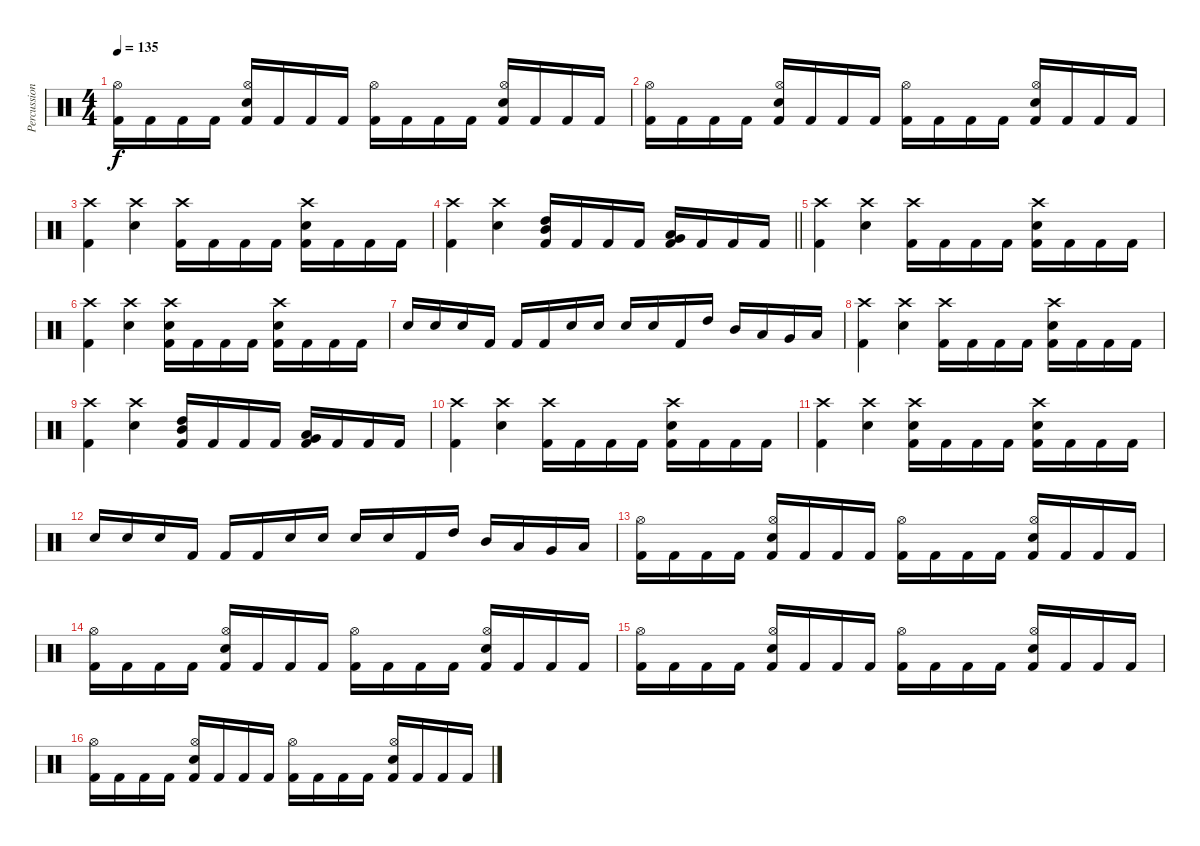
\track ("Percussion" "Percussion") {instrument percussion}
\staff {score}
\articulation defaults
\ts (4 4)
\tempo 135
\clef neutral
\ks c
("Kick (hit) 2" "Hi-Hat (open)").16{dy f} "Kick (hit) 2".16 "Kick (hit) 2".16 "Kick (hit) 2".16 ("Kick (hit) 2" "Hi-Hat (open)" "Electric Snare (hit)").16 "Kick (hit) 2".16 "Kick (hit) 2".16 "Kick (hit) 2".16 ("Kick (hit) 2" "Hi-Hat (open)").16 "Kick (hit) 2".16 "Kick (hit) 2".16 "Kick (hit) 2".16 ("Kick (hit) 2" "Hi-Hat (open)" "Electric Snare (hit)").16 "Kick (hit) 2".16 "Kick (hit) 2".16 "Kick (hit) 2".16 |
("Kick (hit) 2" "Hi-Hat (open)").16 "Kick (hit) 2".16 "Kick (hit) 2".16 "Kick (hit) 2".16 ("Kick (hit) 2" "Hi-Hat (open)" "Electric Snare (hit)").16 "Kick (hit) 2".16 "Kick (hit) 2".16 "Kick (hit) 2".16 ("Kick (hit) 2" "Hi-Hat (open)").16 "Kick (hit) 2".16 "Kick (hit) 2".16 "Kick (hit) 2".16 ("Kick (hit) 2" "Hi-Hat (open)" "Electric Snare (hit)").16 "Kick (hit) 2".16 "Kick (hit) 2".16 "Kick (hit) 2".16 |
("Crash high (hit)" "Kick (hit) 2").4 ("Crash high (hit)" "Electric Snare (hit)").4 ("Kick (hit) 2" "Crash high (hit)").16 "Kick (hit) 2".16 "Kick (hit) 2".16 "Kick (hit) 2".16 ("Kick (hit) 2" "Crash high (hit)" "Electric Snare (hit)").16 "Kick (hit) 2".16 "Kick (hit) 2".16 "Kick (hit) 2".16 |
\barLineRight lightlight
("Crash high (hit)" "Kick (hit) 2").4 ("Crash high (hit)" "Electric Snare (hit)").4 ("Kick (hit) 2" "High Tom (hit)" "Mid Tom (hit)").16 "Kick (hit) 2".16 "Kick (hit) 2".16 "Kick (hit) 2".16 ("Kick (hit) 2" "Very Low Tom (hit)" "Low Tom (hit)").16 "Kick (hit) 2".16 "Kick (hit) 2".16 "Kick (hit) 2".16 |
("Crash high (hit)" "Kick (hit) 2").4 ("Crash high (hit)" "Electric Snare (hit)").4 ("Kick (hit) 2" "Crash high (hit)").16 "Kick (hit) 2".16 "Kick (hit) 2".16 "Kick (hit) 2".16 ("Kick (hit) 2" "Crash high (hit)" "Electric Snare (hit)").16 "Kick (hit) 2".16 "Kick (hit) 2".16 "Kick (hit) 2".16 |
("Crash high (hit)" "Kick (hit) 2").4 ("Crash high (hit)" "Electric Snare (hit)").4 ("Kick (hit) 2" "Electric Snare (hit)" "Crash high (hit)").16 "Kick (hit) 2".16 "Kick (hit) 2".16 "Kick (hit) 2".16 ("Kick (hit) 2" "Electric Snare (hit)" "Crash high (hit)").16 "Kick (hit) 2".16 "Kick (hit) 2".16 "Kick (hit) 2".16 |
"Electric Snare (hit)".16 "Electric Snare (hit)".16 "Electric Snare (hit)".16 "Kick (hit) 2".16 "Kick (hit) 2".16 "Kick (hit) 2".16 "Electric Snare (hit)".16 "Electric Snare (hit)".16 "Electric Snare (hit)".16 "Electric Snare (hit)".16 "Kick (hit) 2".16 "High Tom (hit)".16 "Mid Tom (hit)".16 "Low Tom (hit)".16 "Very Low Tom (hit)".16 "Low Floor Tom (hit)".16 |
("Crash high (hit)" "Kick (hit) 2").4 ("Crash high (hit)" "Electric Snare (hit)").4 ("Kick (hit) 2" "Crash high (hit)").16 "Kick (hit) 2".16 "Kick (hit) 2".16 "Kick (hit) 2".16 ("Kick (hit) 2" "Crash high (hit)" "Electric Snare (hit)").16 "Kick (hit) 2".16 "Kick (hit) 2".16 "Kick (hit) 2".16 |
("Crash high (hit)" "Kick (hit) 2").4 ("Crash high (hit)" "Electric Snare (hit)").4 ("Kick (hit) 2" "High Tom (hit)" "Mid Tom (hit)").16 "Kick (hit) 2".16 "Kick (hit) 2".16 "Kick (hit) 2".16 ("Kick (hit) 2" "Very Low Tom (hit)" "Low Tom (hit)").16 "Kick (hit) 2".16 "Kick (hit) 2".16 "Kick (hit) 2".16 |
("Crash high (hit)" "Kick (hit) 2").4 ("Crash high (hit)" "Electric Snare (hit)").4 ("Kick (hit) 2" "Crash high (hit)").16 "Kick (hit) 2".16 "Kick (hit) 2".16 "Kick (hit) 2".16 ("Kick (hit) 2" "Crash high (hit)" "Electric Snare (hit)").16 "Kick (hit) 2".16 "Kick (hit) 2".16 "Kick (hit) 2".16 |
("Crash high (hit)" "Kick (hit) 2").4 ("Crash high (hit)" "Electric Snare (hit)").4 ("Kick (hit) 2" "Electric Snare (hit)" "Crash high (hit)").16 "Kick (hit) 2".16 "Kick (hit) 2".16 "Kick (hit) 2".16 ("Kick (hit) 2" "Electric Snare (hit)" "Crash high (hit)").16 "Kick (hit) 2".16 "Kick (hit) 2".16 "Kick (hit) 2".16 |
"Electric Snare (hit)".16 "Electric Snare (hit)".16 "Electric Snare (hit)".16 "Kick (hit) 2".16 "Kick (hit) 2".16 "Kick (hit) 2".16 "Electric Snare (hit)".16 "Electric Snare (hit)".16 "Electric Snare (hit)".16 "Electric Snare (hit)".16 "Kick (hit) 2".16 "High Tom (hit)".16 "Mid Tom (hit)".16 "Low Tom (hit)".16 "Very Low Tom (hit)".16 "Low Floor Tom (hit)".16 |
("Kick (hit) 2" "Hi-Hat (open)").16 "Kick (hit) 2".16 "Kick (hit) 2".16 "Kick (hit) 2".16 ("Kick (hit) 2" "Hi-Hat (open)" "Electric Snare (hit)").16 "Kick (hit) 2".16 "Kick (hit) 2".16 "Kick (hit) 2".16 ("Kick (hit) 2" "Hi-Hat (open)").16 "Kick (hit) 2".16 "Kick (hit) 2".16 "Kick (hit) 2".16 ("Kick (hit) 2" "Hi-Hat (open)" "Electric Snare (hit)").16 "Kick (hit) 2".16 "Kick (hit) 2".16 "Kick (hit) 2".16 |
("Kick (hit) 2" "Hi-Hat (open)").16 "Kick (hit) 2".16 "Kick (hit) 2".16 "Kick (hit) 2".16 ("Kick (hit) 2" "Hi-Hat (open)" "Electric Snare (hit)").16 "Kick (hit) 2".16 "Kick (hit) 2".16 "Kick (hit) 2".16 ("Kick (hit) 2" "Hi-Hat (open)").16 "Kick (hit) 2".16 "Kick (hit) 2".16 "Kick (hit) 2".16 ("Kick (hit) 2" "Hi-Hat (open)" "Electric Snare (hit)").16 "Kick (hit) 2".16 "Kick (hit) 2".16 "Kick (hit) 2".16 |
("Kick (hit) 2" "Hi-Hat (open)").16 "Kick (hit) 2".16 "Kick (hit) 2".16 "Kick (hit) 2".16 ("Kick (hit) 2" "Hi-Hat (open)" "Electric Snare (hit)").16 "Kick (hit) 2".16 "Kick (hit) 2".16 "Kick (hit) 2".16 ("Kick (hit) 2" "Hi-Hat (open)").16 "Kick (hit) 2".16 "Kick (hit) 2".16 "Kick (hit) 2".16 ("Kick (hit) 2" "Hi-Hat (open)" "Electric Snare (hit)").16 "Kick (hit) 2".16 "Kick (hit) 2".16 "Kick (hit) 2".16 |
("Kick (hit) 2" "Hi-Hat (open)").16 "Kick (hit) 2".16 "Kick (hit) 2".16 "Kick (hit) 2".16 ("Kick (hit) 2" "Hi-Hat (open)" "Electric Snare (hit)").16 "Kick (hit) 2".16 "Kick (hit) 2".16 "Kick (hit) 2".16 ("Kick (hit) 2" "Hi-Hat (open)").16 "Kick (hit) 2".16 "Kick (hit) 2".16 "Kick (hit) 2".16 ("Kick (hit) 2" "Hi-Hat (open)" "Electric Snare (hit)").16 "Kick (hit) 2".16 "Kick (hit) 2".16 "Kick (hit) 2".16
